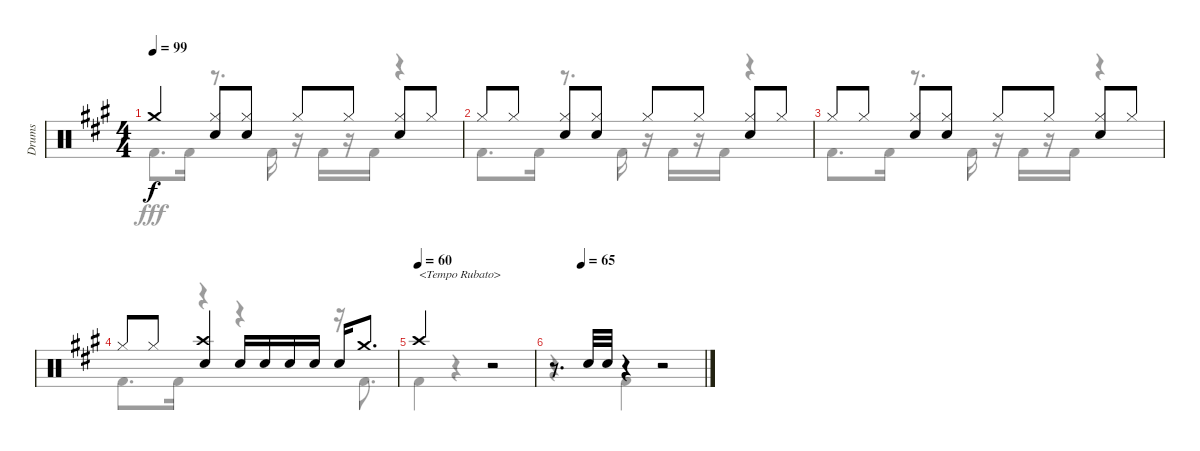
\track ("Drums" "Drums") {instrument percussion}
\staff {score}
\articulation defaults
\voice
\ts (4 4)
\tempo 99
\clef neutral
\ks a "Crash medium (hit)".4{dy f}
("Hi-Hat (closed)" "Snare (hit) 2").8 ("Hi-Hat (closed)" "Snare (hit) 2").8 "Hi-Hat (closed)".8 "Hi-Hat (closed)".8 ("Hi-Hat (closed)" "Snare (hit) 2").8 "Hi-Hat (closed)".8 |
"Hi-Hat (closed)".8 "Hi-Hat (closed)".8 ("Hi-Hat (closed)" "Snare (hit) 2").8 ("Hi-Hat (closed)" "Snare (hit) 2").8 "Hi-Hat (closed)".8 "Hi-Hat (closed)".8 ("Hi-Hat (closed)" "Snare (hit) 2").8 "Hi-Hat (closed)".8 |
"Hi-Hat (closed)".8 "Hi-Hat (closed)".8 ("Hi-Hat (closed)" "Snare (hit) 2").8 ("Hi-Hat (closed)" "Snare (hit) 2").8 "Hi-Hat (closed)".8 "Hi-Hat (closed)".8 ("Hi-Hat (closed)" "Snare (hit) 2").8 "Hi-Hat (closed)".8 |
"Hi-Hat (closed)".8 "Hi-Hat (closed)".8 ("Crash high (hit)" "Snare (hit) 2").4 "Snare (hit) 2".16 "Snare (hit) 2".16 "Snare (hit) 2".16 "Snare (hit) 2".16 "Snare (hit) 2".16 "Crash medium (hit)".8{d} |
\tempo (60)
"Crash high (hit)".2{txt "<Tempo Rubato>"} r.2 |
\tempo (65 0.1875)
r.8{d} "Snare (hit) 2".32 "Snare (hit) 2".32 r.4 r.2
\voice
\clef neutral
\ottava regular
\simile none
\ks a "Kick (hit) 2".8{d dy fff} "Kick (hit) 2".16
r.8{d} "Kick (hit) 2".16 r.16 "Kick (hit) 2".16 r.16 "Kick (hit) 2".16 r.4 |
"Kick (hit) 2".8{d} "Kick (hit) 2".16 r.8{d} "Kick (hit) 2".16 r.16 "Kick (hit) 2".16 r.16 "Kick (hit) 2".16 r.4 |
"Kick (hit) 2".8{d} "Kick (hit) 2".16 r.8{d} "Kick (hit) 2".16 r.16 "Kick (hit) 2".16 r.16 "Kick (hit) 2".16 r.4 |
"Kick (hit) 2".8{d} "Kick (hit) 2".16 r.4 r.4 r.16 "Kick (hit) 2".8{d} |
"Kick (hit) 2".4 r.4 r.2 |
r.4 "Kick (hit) 2".4 r.2
